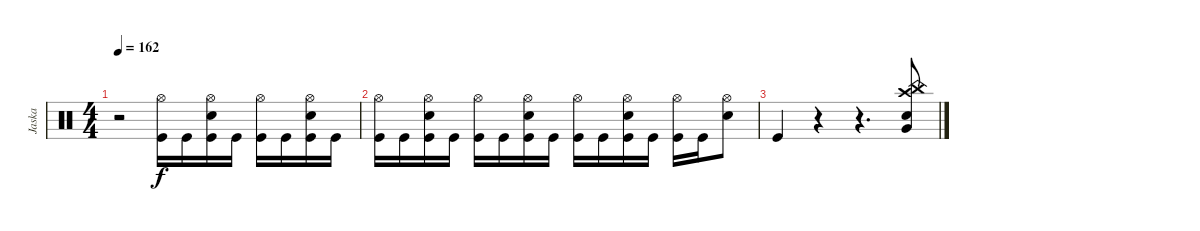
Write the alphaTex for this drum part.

\track ("Jaska" "Jaska") {instrument percussion}
\staff {score}
\articulation defaults
\ts (4 4)
\tempo 162
\clef neutral
\ks c
r.2{dy f} ("Hi-Hat (open)" "Kick (hit)").16 "Kick (hit)".16 ("Hi-Hat (open)" "Snare (hit) 2" "Kick (hit)").16 "Kick (hit)".16 ("Hi-Hat (open)" "Kick (hit)").16 "Kick (hit)".16 ("Hi-Hat (open)" "Snare (hit) 2" "Kick (hit)").16 "Kick (hit)".16 |
("Hi-Hat (open)" "Kick (hit)").16 "Kick (hit)".16 ("Hi-Hat (open)" "Snare (hit) 2" "Kick (hit)").16 "Kick (hit)".16 ("Hi-Hat (open)" "Kick (hit)").16 "Kick (hit)".16 ("Hi-Hat (open)" "Snare (hit) 2" "Kick (hit)").16 "Kick (hit)".16 ("Hi-Hat (open)" "Kick (hit)").16 "Kick (hit)".16 ("Hi-Hat (open)" "Snare (hit) 2" "Kick (hit)").16 "Kick (hit)".16 ("Hi-Hat (open)" "Kick (hit)").16 "Kick (hit)".16 ("Hi-Hat (open)" "Snare (hit) 2").8 |
"Kick (hit)".4 r.4 r.4{d} ("China (hit)" "Crash high (hit)" "Snare (hit) 2" "Very Low Tom (hit)").8
